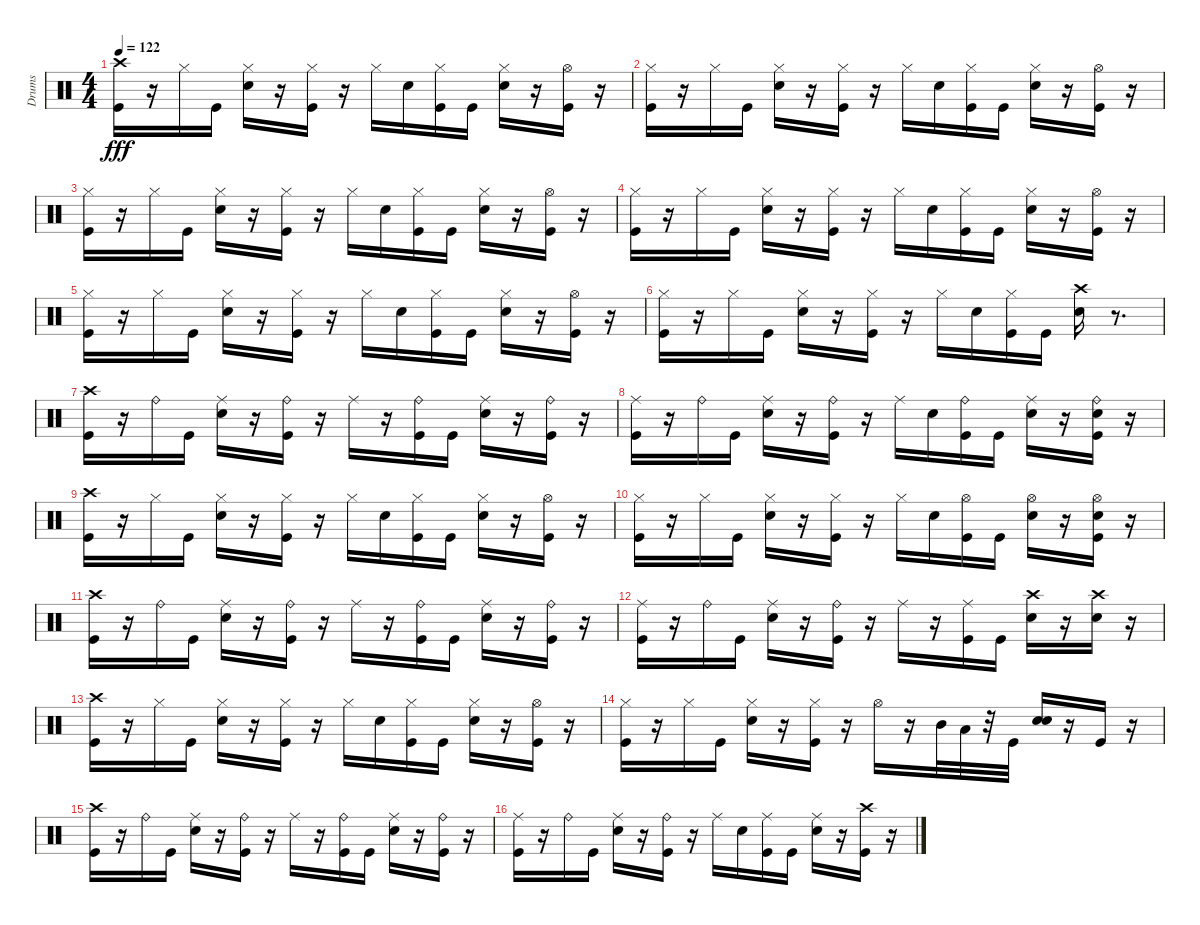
\track ("Drums" "Drums") {instrument percussion}
\staff {score}
\articulation defaults
\ts (4 4)
\tempo 122
\clef neutral
\ks c
("Kick (hit)" "Crash high (hit)").16{dy fff} r.16 "Hi-Hat (closed)".16 "Kick (hit)".16 ("Snare (hit) 2" "Hi-Hat (closed)").16 r.16 ("Kick (hit)" "Hi-Hat (closed)").16 r.16 "Hi-Hat (closed)".16 "Snare (hit) 2".16 ("Kick (hit)" "Hi-Hat (closed)").16 "Kick (hit)".16 ("Snare (hit) 2" "Hi-Hat (closed)").16 r.16 ("Kick (hit)" "Hi-Hat (open)").16 r.16 |
("Kick (hit)" "Hi-Hat (closed)").16 r.16 "Hi-Hat (closed)".16 "Kick (hit)".16 ("Snare (hit) 2" "Hi-Hat (closed)").16 r.16 ("Kick (hit)" "Hi-Hat (closed)").16 r.16 "Hi-Hat (closed)".16 "Snare (hit) 2".16 ("Kick (hit)" "Hi-Hat (closed)").16 "Kick (hit)".16 ("Snare (hit) 2" "Hi-Hat (closed)").16 r.16 ("Kick (hit)" "Hi-Hat (open)").16 r.16 |
("Kick (hit)" "Hi-Hat (closed)").16 r.16 "Hi-Hat (closed)".16 "Kick (hit)".16 ("Snare (hit) 2" "Hi-Hat (closed)").16 r.16 ("Kick (hit)" "Hi-Hat (closed)").16 r.16 "Hi-Hat (closed)".16 "Snare (hit) 2".16 ("Kick (hit)" "Hi-Hat (closed)").16 "Kick (hit)".16 ("Snare (hit) 2" "Hi-Hat (closed)").16 r.16 ("Kick (hit)" "Hi-Hat (open)").16 r.16 |
("Kick (hit)" "Hi-Hat (closed)").16 r.16 "Hi-Hat (closed)".16 "Kick (hit)".16 ("Snare (hit) 2" "Hi-Hat (closed)").16 r.16 ("Kick (hit)" "Hi-Hat (closed)").16 r.16 "Hi-Hat (closed)".16 "Snare (hit) 2".16 ("Kick (hit)" "Hi-Hat (closed)").16 "Kick (hit)".16 ("Snare (hit) 2" "Hi-Hat (closed)").16 r.16 ("Kick (hit)" "Hi-Hat (open)").16 r.16 |
("Kick (hit)" "Hi-Hat (closed)").16 r.16 "Hi-Hat (closed)".16 "Kick (hit)".16 ("Snare (hit) 2" "Hi-Hat (closed)").16 r.16 ("Kick (hit)" "Hi-Hat (closed)").16 r.16 "Hi-Hat (closed)".16 "Snare (hit) 2".16 ("Kick (hit)" "Hi-Hat (closed)").16 "Kick (hit)".16 ("Snare (hit) 2" "Hi-Hat (closed)").16 r.16 ("Kick (hit)" "Hi-Hat (open)").16 r.16 |
("Kick (hit)" "Hi-Hat (closed)").16 r.16 "Hi-Hat (closed)".16 "Kick (hit)".16 ("Snare (hit) 2" "Hi-Hat (closed)").16 r.16 ("Kick (hit)" "Hi-Hat (closed)").16 r.16 "Hi-Hat (closed)".16 "Snare (hit) 2".16 ("Kick (hit)" "Hi-Hat (closed)").16 "Kick (hit)".16 ("Snare (hit) 2" "Crash high (hit)").16 r.8{d} |
("Crash high (hit)" "Kick (hit)").16 r.16 "Ride (bell)".16 "Kick (hit)".16 ("Snare (hit) 2" "Ride (middle)").16 r.16 ("Kick (hit)" "Ride (bell)").16 r.16 "Ride (middle)".16 r.16 ("Kick (hit)" "Ride (bell)").16 "Kick (hit)".16 ("Snare (hit) 2" "Ride (middle)").16 r.16 ("Kick (hit)" "Ride (bell)").16 r.16 |
("Ride (middle)" "Kick (hit)").16 r.16 "Ride (bell)".16 "Kick (hit)".16 ("Ride (middle)" "Snare (hit) 2").16 r.16 ("Ride (bell)" "Kick (hit)").16 r.16 "Ride (middle)".16 "Snare (hit) 2".16 ("Ride (bell)" "Kick (hit)").16 "Kick (hit)".16 ("Ride (middle)" "Snare (hit) 2").16 r.16 ("Ride (bell)" "Snare (hit) 2" "Kick (hit)").16 r.16 |
("Crash high (hit)" "Kick (hit)").16 r.16 "Hi-Hat (closed)".16 "Kick (hit)".16 ("Hi-Hat (closed)" "Snare (hit) 2").16 r.16 ("Hi-Hat (closed)" "Kick (hit)").16 r.16 "Hi-Hat (closed)".16 "Snare (hit) 2".16 ("Hi-Hat (closed)" "Kick (hit)").16 "Kick (hit)".16 ("Hi-Hat (closed)" "Snare (hit) 2").16 r.16 ("Hi-Hat (open)" "Kick (hit)").16 r.16 |
("Kick (hit)" "Hi-Hat (closed)").16 r.16 "Hi-Hat (closed)".16 "Kick (hit)".16 ("Snare (hit) 2" "Hi-Hat (closed)").16 r.16 ("Kick (hit)" "Hi-Hat (closed)").16 r.16 "Hi-Hat (closed)".16 "Snare (hit) 2".16 ("Kick (hit)" "Hi-Hat (open)").16 "Kick (hit)".16 ("Snare (hit) 2" "Hi-Hat (open)").16 r.16 ("Kick (hit)" "Snare (hit) 2" "Hi-Hat (open)").16 r.16 |
("Crash high (hit)" "Kick (hit)").16 r.16 "Ride (bell)".16 "Kick (hit)".16 ("Snare (hit) 2" "Ride (middle)").16 r.16 ("Kick (hit)" "Ride (bell)").16 r.16 "Ride (middle)".16 r.16 ("Kick (hit)" "Ride (bell)").16 "Kick (hit)".16 ("Snare (hit) 2" "Ride (middle)").16 r.16 ("Kick (hit)" "Ride (bell)").16 r.16 |
("Ride (middle)" "Kick (hit)").16 r.16 "Ride (bell)".16 "Kick (hit)".16 ("Ride (middle)" "Snare (hit) 2").16 r.16 ("Ride (bell)" "Kick (hit)").16 r.16 "Ride (middle)".16 r.16 ("Ride (middle)" "Kick (hit)").16 "Kick (hit)".16 ("Crash high (hit)" "Snare (hit) 2").16 r.16 ("Crash high (hit)" "Snare (hit) 2").16 r.16 |
("Crash high (hit)" "Kick (hit)").16 r.16 "Hi-Hat (closed)".16 "Kick (hit)".16 ("Snare (hit) 2" "Hi-Hat (closed)").16 r.16 ("Kick (hit)" "Hi-Hat (closed)").16 r.16 "Hi-Hat (closed)".16 "Snare (hit) 2".16 ("Kick (hit)" "Hi-Hat (closed)").16 "Kick (hit)".16 ("Snare (hit) 2" "Hi-Hat (closed)").16 r.16 ("Kick (hit)" "Hi-Hat (open)").16 r.16 |
("Kick (hit)" "Hi-Hat (closed)").16 r.16 "Hi-Hat (closed)".16 "Kick (hit)".16 ("Hi-Hat (closed)" "Snare (hit) 2").16 r.16 ("Kick (hit)" "Hi-Hat (closed)").16 r.16 "Hi-Hat (open)".16 r.16 "Mid Tom (hit)".32 "Low Tom (hit)".32 r.32 "Kick (hit)".32 ("Snare (hit) 2" "Electric Snare (hit)").16 r.16 "Kick (hit)".16 r.16 |
("Crash high (hit)" "Kick (hit)").16 r.16 "Ride (bell)".16 "Kick (hit)".16 ("Snare (hit) 2" "Ride (middle)").16 r.16 ("Kick (hit)" "Ride (bell)").16 r.16 "Ride (middle)".16 r.16 ("Kick (hit)" "Ride (bell)").16 "Kick (hit)".16 ("Snare (hit) 2" "Ride (middle)").16 r.16 ("Kick (hit)" "Ride (bell)").16 r.16 |
("Ride (middle)" "Kick (hit)").16 r.16 "Ride (bell)".16 "Kick (hit)".16 ("Ride (middle)" "Snare (hit) 2").16 r.16 ("Ride (bell)" "Kick (hit)").16 r.16 "Ride (middle)".16 "Snare (hit) 2".16 ("Ride (middle)" "Kick (hit)").16 "Kick (hit)".16 ("Ride (middle)" "Snare (hit) 2").16 r.16 ("Crash high (hit)" "Kick (hit)").16 r.16
